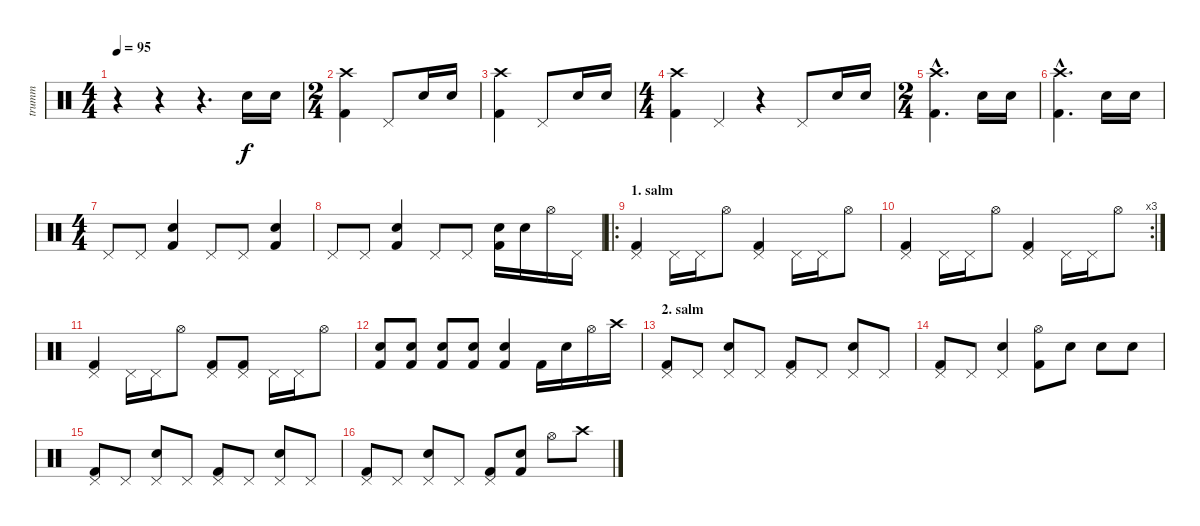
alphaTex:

\track ("trumm" "trumm") {instrument percussion}
\staff {score}
\articulation defaults
\ts (4 4)
\tempo 95
\clef neutral
\ks c
r.4{dy f} r.4 r.4{d} "Snare (hit) 2".16 "Snare (hit) 2".16 |
\ts (2 4)
("Crash high (hit)" "Kick (hit) 2").4 "Pedal Hi-Hat (hit)".8 "Snare (hit) 2".16 "Snare (hit) 2".16 |
("Crash high (hit)" "Kick (hit) 2").4 "Pedal Hi-Hat (hit)".8 "Snare (hit) 2".16 "Snare (hit) 2".16 |
\ts (4 4)
("Crash high (hit)" "Kick (hit) 2").4 "Pedal Hi-Hat (hit)".4 r.4 "Pedal Hi-Hat (hit)".8 "Snare (hit) 2".16 "Snare (hit) 2".16 |
\ts (2 4)
("Crash high (hit)"{hac} "Kick (hit) 2"{hac}).4{d} "Snare (hit) 2".16 "Snare (hit) 2".16 |
("Crash high (hit)"{hac} "Kick (hit) 2"{hac}).4{d} "Snare (hit) 2".16 "Snare (hit) 2".16 |
\ts (4 4)
"Pedal Hi-Hat (hit)".8 "Pedal Hi-Hat (hit)".8 ("Snare (hit) 2" "Kick (hit) 2").4 "Pedal Hi-Hat (hit)".8 "Pedal Hi-Hat (hit)".8 ("Snare (hit) 2" "Kick (hit) 2").4 |
"Pedal Hi-Hat (hit)".8 "Pedal Hi-Hat (hit)".8 ("Snare (hit) 2" "Kick (hit) 2").4 "Pedal Hi-Hat (hit)".8 "Pedal Hi-Hat (hit)".8 ("Snare (hit) 2" "Kick (hit) 2").16 "Snare (hit) 2".16 "Hi-Hat (open)".16 "Pedal Hi-Hat (hit)".16 |
\ro
\section ("" "1. salm")
("Pedal Hi-Hat (hit)" "Kick (hit) 2").4 "Pedal Hi-Hat (hit)".16 "Pedal Hi-Hat (hit)".16 "Hi-Hat (open)".8 ("Pedal Hi-Hat (hit)" "Kick (hit) 2").4 "Pedal Hi-Hat (hit)".16 "Pedal Hi-Hat (hit)".16 "Hi-Hat (open)".8 |
\rc 3
("Pedal Hi-Hat (hit)" "Kick (hit) 2").4 "Pedal Hi-Hat (hit)".16 "Pedal Hi-Hat (hit)".16 "Hi-Hat (open)".8 ("Pedal Hi-Hat (hit)" "Kick (hit) 2").4 "Pedal Hi-Hat (hit)".16 "Pedal Hi-Hat (hit)".16 "Hi-Hat (open)".8 |
("Pedal Hi-Hat (hit)" "Kick (hit) 2").4 "Pedal Hi-Hat (hit)".16 "Pedal Hi-Hat (hit)".16 "Hi-Hat (open)".8 ("Pedal Hi-Hat (hit)" "Kick (hit) 2").8 ("Pedal Hi-Hat (hit)" "Kick (hit) 2").8 "Pedal Hi-Hat (hit)".16 "Pedal Hi-Hat (hit)".16 "Hi-Hat (open)".8 |
("Snare (hit) 2" "Kick (hit) 2").8 ("Snare (hit) 2" "Kick (hit) 2").8 ("Snare (hit) 2" "Kick (hit) 2").8 ("Snare (hit) 2" "Kick (hit) 2").8 ("Snare (hit) 2" "Kick (hit) 2").4 "Kick (hit) 2".16 "Snare (hit) 2".16 "Hi-Hat (open)".16 "Crash high (hit)".16 |
\section ("" "2. salm")
("Pedal Hi-Hat (hit)" "Kick (hit) 2").8 "Pedal Hi-Hat (hit)".8 ("Pedal Hi-Hat (hit)" "Snare (hit) 2").8 "Pedal Hi-Hat (hit)".8 ("Pedal Hi-Hat (hit)" "Kick (hit) 2").8 "Pedal Hi-Hat (hit)".8 ("Pedal Hi-Hat (hit)" "Snare (hit) 2").8 "Pedal Hi-Hat (hit)".8 |
("Pedal Hi-Hat (hit)" "Kick (hit) 2").8 "Pedal Hi-Hat (hit)".8 ("Pedal Hi-Hat (hit)" "Snare (hit) 2").4 ("Hi-Hat (open)" "Kick (hit) 2").8 "Snare (hit) 2".8 "Snare (hit) 2".8 "Snare (hit) 2".8 |
("Pedal Hi-Hat (hit)" "Kick (hit) 2").8 "Pedal Hi-Hat (hit)".8 ("Pedal Hi-Hat (hit)" "Snare (hit) 2").8 "Pedal Hi-Hat (hit)".8 ("Pedal Hi-Hat (hit)" "Kick (hit) 2").8 "Pedal Hi-Hat (hit)".8 ("Pedal Hi-Hat (hit)" "Snare (hit) 2").8 "Pedal Hi-Hat (hit)".8 |
("Pedal Hi-Hat (hit)" "Kick (hit) 2").8 "Pedal Hi-Hat (hit)".8 ("Pedal Hi-Hat (hit)" "Snare (hit) 2").8 "Pedal Hi-Hat (hit)".8 ("Pedal Hi-Hat (hit)" "Kick (hit) 2").8 ("Snare (hit) 2" "Kick (hit) 2").8 "Hi-Hat (open)".8 "Crash high (hit)".8
